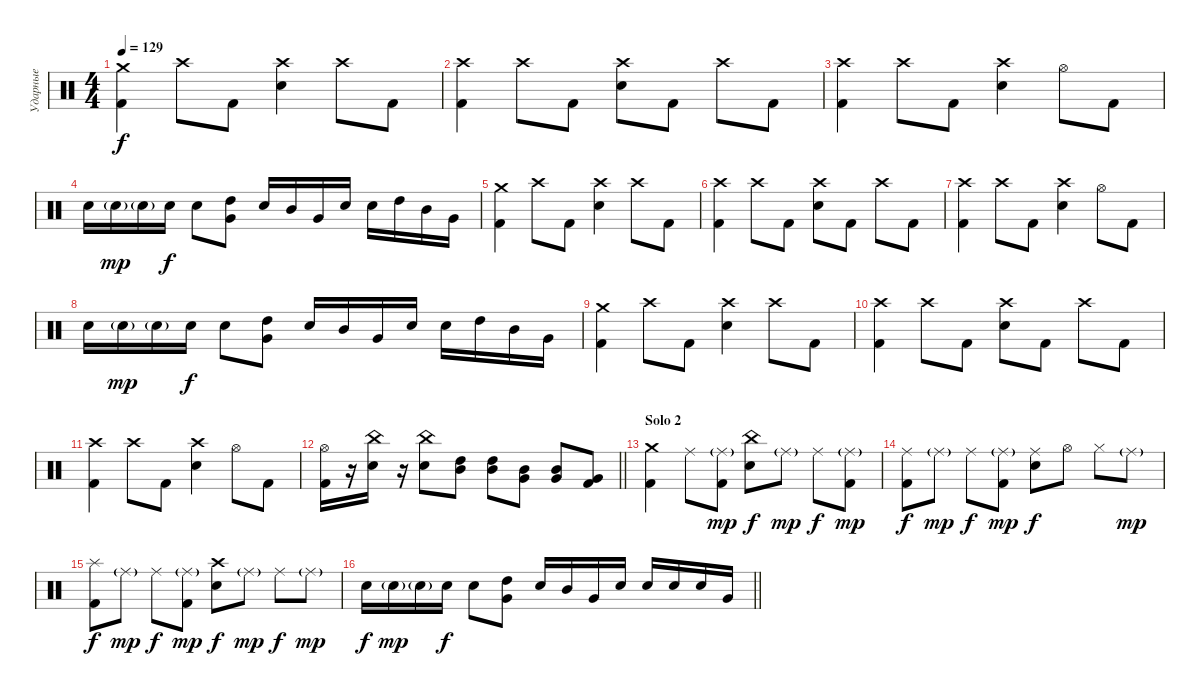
\track ("Ударные" "Ударные") {instrument percussion}
\staff
\articulation defaults
\ts (4 4)
\tempo 129
\clef neutral
\ks c
("Crash medium (hit)" "Kick (hit) 2").4{dy f} "Crash high (hit)".8 "Kick (hit) 2".8 ("Crash high (hit)" "Snare (hit) 2").4 "Crash high (hit)".8 "Kick (hit) 2".8 |
("Crash high (hit)" "Kick (hit) 2").4 "Crash high (hit)".8 "Kick (hit) 2".8 ("Crash high (hit)" "Snare (hit) 2").8 "Kick (hit) 2".8 "Crash high (hit)".8 "Kick (hit) 2".8 |
("Crash high (hit)" "Kick (hit) 2").4 "Crash high (hit)".8 "Kick (hit) 2".8 ("Crash high (hit)" "Snare (hit) 2").4 "Hi-Hat (open)".8 "Kick (hit) 2".8 |
"Snare (hit) 2".16 "Snare (hit) 2"{g}.16{dy mp} "Snare (hit) 2"{g}.16 "Snare (hit) 2".16{dy f} "Snare (hit) 2".8 ("High Tom (hit)" "Very Low Tom (hit)").8 "Snare (hit) 2".16 "Mid Tom (hit)".16 "Very Low Tom (hit)".16 "Snare (hit) 2".16 "Snare (hit) 2".16 "High Tom (hit)".16 "Mid Tom (hit)".16 "Very Low Tom (hit)".16 |
("Crash medium (hit)" "Kick (hit) 2").4 "Crash high (hit)".8 "Kick (hit) 2".8 ("Crash high (hit)" "Snare (hit) 2").4 "Crash high (hit)".8 "Kick (hit) 2".8 |
("Crash high (hit)" "Kick (hit) 2").4 "Crash high (hit)".8 "Kick (hit) 2".8 ("Crash high (hit)" "Snare (hit) 2").8 "Kick (hit) 2".8 "Crash high (hit)".8 "Kick (hit) 2".8 |
("Crash high (hit)" "Kick (hit) 2").4 "Crash high (hit)".8 "Kick (hit) 2".8 ("Crash high (hit)" "Snare (hit) 2").4 "Hi-Hat (open)".8 "Kick (hit) 2".8 |
"Snare (hit) 2".16 "Snare (hit) 2"{g}.16{dy mp} "Snare (hit) 2"{g}.16 "Snare (hit) 2".16{dy f} "Snare (hit) 2".8 ("High Tom (hit)" "Very Low Tom (hit)").8 "Snare (hit) 2".16 "Mid Tom (hit)".16 "Very Low Tom (hit)".16 "Snare (hit) 2".16 "Snare (hit) 2".16 "High Tom (hit)".16 "Mid Tom (hit)".16 "Very Low Tom (hit)".16 |
("Crash medium (hit)" "Kick (hit) 2").4 "Crash high (hit)".8 "Kick (hit) 2".8 ("Crash high (hit)" "Snare (hit) 2").4 "Crash high (hit)".8 "Kick (hit) 2".8 |
("Crash high (hit)" "Kick (hit) 2").4 "Crash high (hit)".8 "Kick (hit) 2".8 ("Crash high (hit)" "Snare (hit) 2").8 "Kick (hit) 2".8 "Crash high (hit)".8 "Kick (hit) 2".8 |
("Crash high (hit)" "Kick (hit) 2").4 "Crash high (hit)".8 "Kick (hit) 2".8 ("Crash high (hit)" "Snare (hit) 2").4 "Hi-Hat (open)".8 "Kick (hit) 2".8 |
\barLineRight lightlight
("Hi-Hat (open)" "Kick (hit) 2").16 r.16 ("China (hit)" "Snare (hit) 2").16 r.16 ("China (hit)" "Snare (hit) 2").8 ("High Tom (hit)" "Mid Tom (hit)").8 ("High Tom (hit)" "Mid Tom (hit)").8 ("Mid Tom (hit)" "Very Low Tom (hit)").8 ("Mid Tom (hit)" "Very Low Tom (hit)").8 ("Very Low Tom (hit)" "Kick (hit) 2").8 |
\section ("" "Solo 2")
("Crash medium (hit)" "Kick (hit) 2").4 "Ride (middle)".8 ("Ride (middle)"{g} "Kick (hit) 2").8{dy mp} ("China (hit)" "Snare (hit) 2").8{dy f} "Ride (middle)"{g}.8{dy mp} "Ride (middle)".8{dy f} ("Ride (middle)"{g} "Kick (hit) 2").8{dy mp} |
("Ride (middle)" "Kick (hit) 2").8{dy f} "Ride (middle)"{g}.8{dy mp} "Ride (middle)".8{dy f} ("Ride (middle)"{g} "Kick (hit) 2").8{dy mp} ("Ride (middle)" "Snare (hit) 2").8{dy f} "Hi-Hat (open)".8 "Hi-Hat (closed)".8 "Ride (middle)"{g}.8{dy mp} |
("Splash (hit)" "Kick (hit) 2").8{dy f} "Ride (middle)"{g}.8{dy mp} "Ride (middle)".8{dy f} ("Ride (middle)"{g} "Kick (hit) 2").8{dy mp} ("Crash high (hit)" "Snare (hit) 2").8{dy f} "Ride (middle)"{g}.8{dy mp} "Ride (middle)".8{dy f} "Ride (middle)"{g}.8{dy mp} |
\barLineRight lightlight "Snare (hit) 2".16{dy f} "Snare (hit) 2"{g}.16{dy mp} "Snare (hit) 2"{g}.16 "Snare (hit) 2".16{dy f} "Snare (hit) 2".8
("High Tom (hit)" "Very Low Tom (hit)").8 "Snare (hit) 2".16 "Mid Tom (hit)".16 "Very Low Tom (hit)".16 "Snare (hit) 2".16 "Snare (hit) 2".16 "Snare (hit) 2".16 "Snare (hit) 2".16 "Very Low Tom (hit)".16
